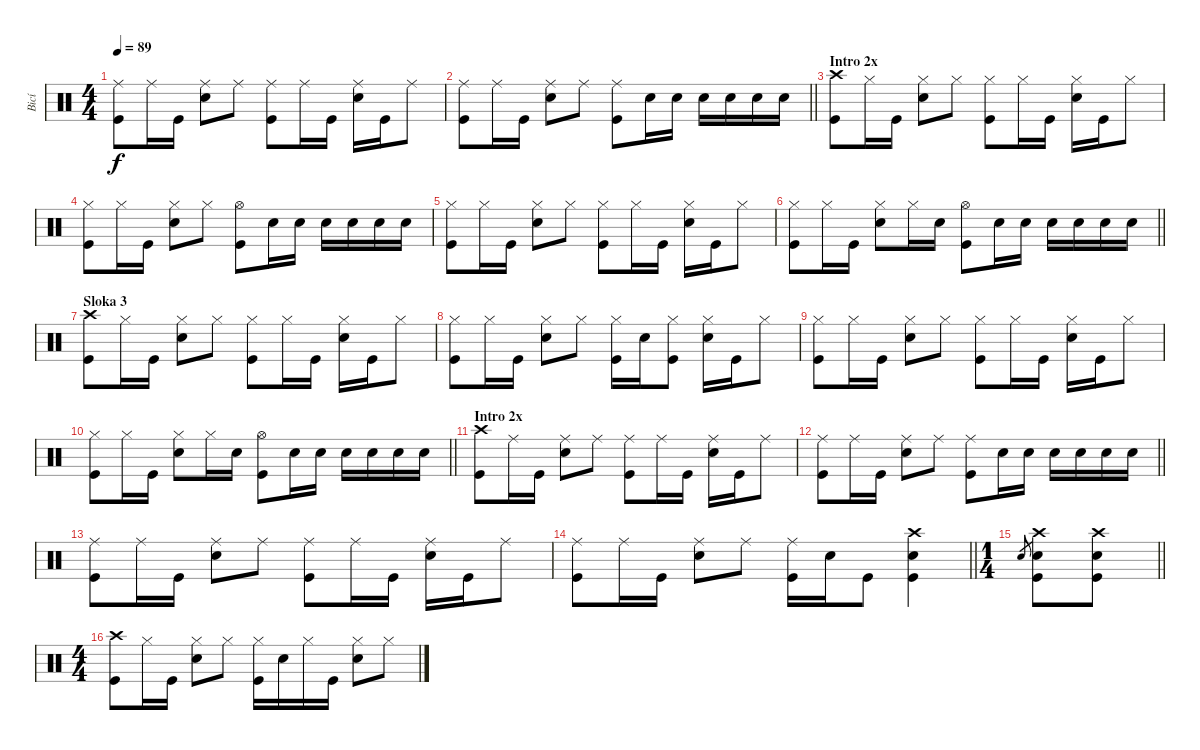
\track ("Bicí" "Bicí") {instrument percussion}
\staff {score}
\articulation defaults
\ts (4 4)
\tempo 89
\clef neutral
\ks c
("Kick (hit)" "Ride (middle)").8{dy f} "Ride (middle)".16{beam merge} "Kick (hit)".16 ("Snare (hit) 2" "Ride (middle)").8{beam Down} "Ride (middle)".8{beam Down} ("Kick (hit)" "Ride (middle)").8 "Ride (middle)".16{beam merge} "Kick (hit)".16 ("Ride (middle)" "Snare (hit) 2").16{beam Down} "Kick (hit)".16{beam Down} "Ride (middle)".8{beam Down} |
\barLineRight lightlight
("Kick (hit)" "Ride (middle)").8 "Ride (middle)".16{beam merge} "Kick (hit)".16 ("Snare (hit) 2" "Ride (middle)").8 "Ride (middle)".8 ("Kick (hit)" "Ride (middle)").8{beam Down} "Snare (hit) 2".16{beam Down} "Snare (hit) 2".16{beam Down} "Snare (hit) 2".16{beam Down} "Snare (hit) 2".16{beam Down} "Snare (hit) 2".16{beam Down} "Snare (hit) 2".16{beam Down} |
\section ("" "Intro 2x")
("Kick (hit)" "Crash high (hit)").8 "Hi-Hat (closed)".16{beam merge} "Kick (hit)".16{beam split} ("Hi-Hat (closed)" "Snare (hit) 2").8 "Hi-Hat (closed)".8 ("Kick (hit)" "Hi-Hat (closed)").8 "Hi-Hat (closed)".16{beam merge} "Kick (hit)".16 ("Hi-Hat (closed)" "Snare (hit) 2").16 "Kick (hit)".16 "Hi-Hat (closed)".8 |
("Kick (hit)" "Hi-Hat (closed)").8 "Hi-Hat (closed)".16{beam merge} "Kick (hit)".16 ("Snare (hit) 2" "Hi-Hat (closed)").8{beam Down} "Hi-Hat (closed)".8{beam Down} ("Kick (hit)" "Hi-Hat (open)").8 "Snare (hit) 2".16 "Snare (hit) 2".16 "Snare (hit) 2".16{beam Down} "Snare (hit) 2".16{beam Down} "Snare (hit) 2".16{beam Down} "Snare (hit) 2".16{beam Down} |
("Kick (hit)" "Hi-Hat (closed)").8 "Hi-Hat (closed)".16{beam merge} "Kick (hit)".16 ("Hi-Hat (closed)" "Snare (hit) 2").8{beam Down} "Hi-Hat (closed)".8{beam Down} ("Kick (hit)" "Hi-Hat (closed)").8 "Hi-Hat (closed)".16{beam merge} "Kick (hit)".16 ("Hi-Hat (closed)" "Snare (hit) 2").16{beam Down} "Kick (hit)".16{beam Down} "Hi-Hat (closed)".8{beam Down} |
\barLineRight lightlight
("Kick (hit)" "Hi-Hat (closed)").8 "Hi-Hat (closed)".16{beam merge} "Kick (hit)".16 ("Snare (hit) 2" "Hi-Hat (closed)").8 "Hi-Hat (closed)".16 "Snare (hit) 2".16 ("Kick (hit)" "Hi-Hat (open)").8 "Snare (hit) 2".16 "Snare (hit) 2".16 "Snare (hit) 2".16{beam Down} "Snare (hit) 2".16{beam Down} "Snare (hit) 2".16{beam Down} "Snare (hit) 2".16{beam Down} |
\section ("" "Sloka 3")
("Kick (hit)" "Crash high (hit)").8 "Hi-Hat (closed)".16{beam merge} "Kick (hit)".16 ("Hi-Hat (closed)" "Snare (hit) 2").8{beam Down} "Hi-Hat (closed)".8{beam Down} ("Kick (hit)" "Hi-Hat (closed)").8 "Hi-Hat (closed)".16{beam merge} "Kick (hit)".16 ("Hi-Hat (closed)" "Snare (hit) 2").16{beam Down} "Kick (hit)".16{beam Down} "Hi-Hat (closed)".8{beam Down} |
("Kick (hit)" "Hi-Hat (closed)").8 "Hi-Hat (closed)".16{beam merge} "Kick (hit)".16 ("Snare (hit) 2" "Hi-Hat (closed)").8{beam Down} "Hi-Hat (closed)".8{beam Down} ("Kick (hit)" "Hi-Hat (closed)").16{beam Down} "Snare (hit) 2".16{beam Down} ("Hi-Hat (closed)" "Kick (hit)").8{beam Down} ("Hi-Hat (closed)" "Snare (hit) 2").16{beam Down} "Kick (hit)".16{beam Down} "Hi-Hat (closed)".8{beam Down} |
("Kick (hit)" "Hi-Hat (closed)").8 "Hi-Hat (closed)".16{beam merge} "Kick (hit)".16 ("Hi-Hat (closed)" "Snare (hit) 2").8{beam Down} "Hi-Hat (closed)".8{beam Down} ("Kick (hit)" "Hi-Hat (closed)").8 "Hi-Hat (closed)".16{beam merge} "Kick (hit)".16 ("Hi-Hat (closed)" "Snare (hit) 2").16{beam Down} "Kick (hit)".16{beam Down} "Hi-Hat (closed)".8{beam Down} |
\barLineRight lightlight
("Kick (hit)" "Hi-Hat (closed)").8 "Hi-Hat (closed)".16{beam merge} "Kick (hit)".16 ("Snare (hit) 2" "Hi-Hat (closed)").8 "Hi-Hat (closed)".16 "Snare (hit) 2".16 ("Kick (hit)" "Hi-Hat (open)").8{beam Down} "Snare (hit) 2".16{beam Down} "Snare (hit) 2".16{beam Down} "Snare (hit) 2".16{beam Down} "Snare (hit) 2".16{beam Down} "Snare (hit) 2".16{beam Down} "Snare (hit) 2".16{beam Down} |
\section ("" "Intro 2x")
("Kick (hit)" "Crash high (hit)").8 "Ride (middle)".16{beam merge} "Kick (hit)".16 ("Snare (hit) 2" "Ride (middle)").8{beam Down} "Ride (middle)".8{beam Down} ("Kick (hit)" "Ride (middle)").8 "Ride (middle)".16{beam merge} "Kick (hit)".16 ("Ride (middle)" "Snare (hit) 2").16{beam Down} "Kick (hit)".16{beam Down} "Ride (middle)".8{beam Down} |
\barLineRight lightlight
("Kick (hit)" "Ride (middle)").8 "Ride (middle)".16{beam merge} "Kick (hit)".16 ("Snare (hit) 2" "Ride (middle)").8 "Ride (middle)".8 ("Kick (hit)" "Ride (middle)").8{beam Down} "Snare (hit) 2".16{beam Down} "Snare (hit) 2".16{beam Down} "Snare (hit) 2".16{beam Down} "Snare (hit) 2".16{beam Down} "Snare (hit) 2".16{beam Down} "Snare (hit) 2".16{beam Down} |
("Kick (hit)" "Ride (middle)").8 "Ride (middle)".16{beam merge} "Kick (hit)".16 ("Snare (hit) 2" "Ride (middle)").8{beam Down} "Ride (middle)".8{beam Down} ("Kick (hit)" "Ride (middle)").8 "Ride (middle)".16{beam merge} "Kick (hit)".16 ("Ride (middle)" "Snare (hit) 2").16{beam Down} "Kick (hit)".16{beam Down} "Ride (middle)".8{beam Down} |
\barLineRight lightlight
("Kick (hit)" "Ride (middle)").8 "Ride (middle)".16{beam merge} "Kick (hit)".16 ("Snare (hit) 2" "Ride (middle)").8 "Ride (middle)".8 ("Kick (hit)" "Ride (middle)").16 "Snare (hit) 2".16 "Kick (hit)".8 ("Kick (hit)" "Snare (hit) 2" "Crash high (hit)").4 |
\ts (1 4)
\barLineRight lightlight "Snare (hit) 2".8{gr}
("Crash high (hit)" "Kick (hit)" "Snare (hit) 2").8 ("Crash high (hit)" "Kick (hit)" "Snare (hit) 2").8 |
\ts (4 4)
("Kick (hit)" "Crash high (hit)").8 "Hi-Hat (closed)".16{beam merge} "Kick (hit)".16 ("Hi-Hat (closed)" "Snare (hit) 2").8{beam Down} "Hi-Hat (closed)".8{beam Down} ("Kick (hit)" "Hi-Hat (closed)").16 "Snare (hit) 2".16 "Hi-Hat (closed)".16 "Kick (hit)".16 ("Hi-Hat (closed)" "Snare (hit) 2").8{beam Down} "Hi-Hat (closed)".8{beam Down}
